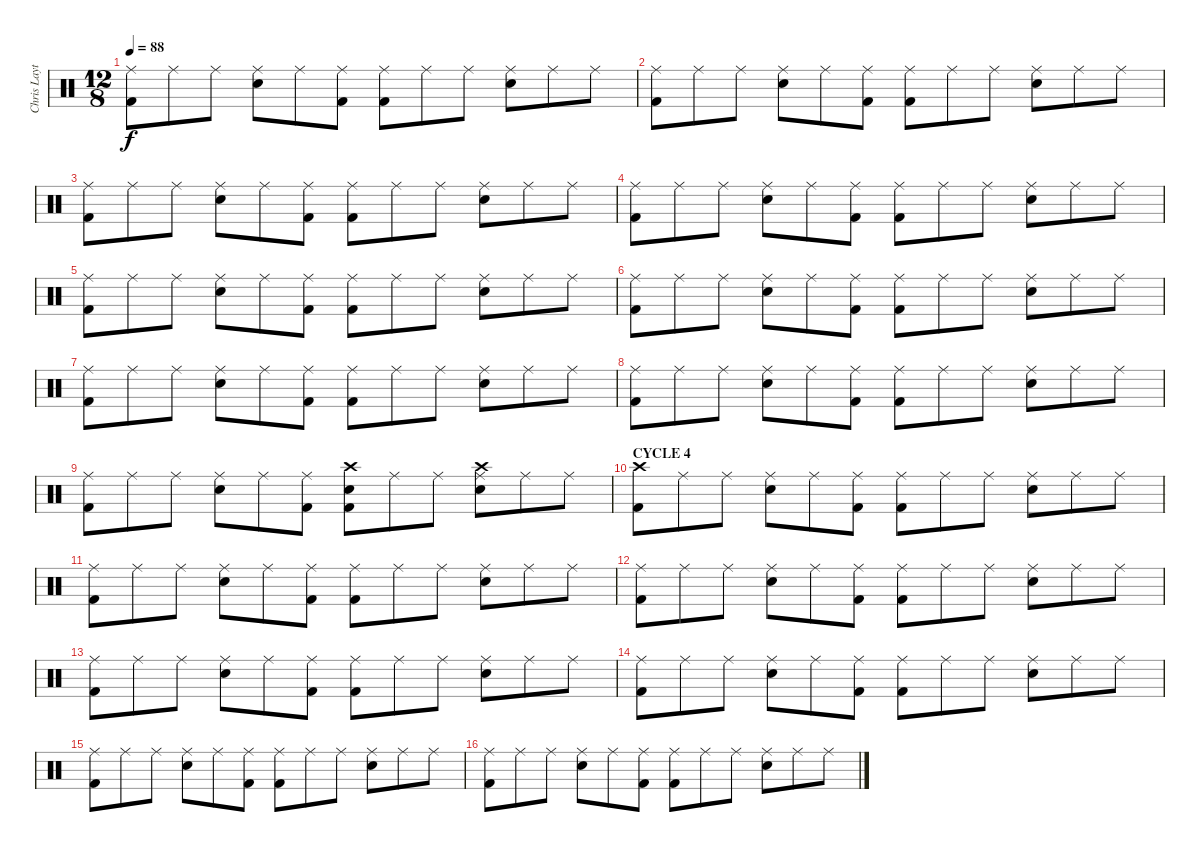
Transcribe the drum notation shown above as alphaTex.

\track ("Chris Layton" "Chris Layt") {instrument percussion}
\staff {score}
\articulation defaults
\ts (12 8)
\tempo 88
\clef neutral
\ks c
("Ride (middle)" "Kick (hit) 2").8{dy f} "Ride (middle)".8 "Ride (middle)".8 ("Ride (middle)" "Snare (hit) 2").8 "Ride (middle)".8 ("Ride (middle)" "Kick (hit) 2").8 ("Ride (middle)" "Kick (hit) 2").8 "Ride (middle)".8 "Ride (middle)".8 ("Ride (middle)" "Snare (hit) 2").8 "Ride (middle)".8 "Ride (middle)".8 |
("Ride (middle)" "Kick (hit) 2").8 "Ride (middle)".8 "Ride (middle)".8 ("Ride (middle)" "Snare (hit) 2").8 "Ride (middle)".8 ("Ride (middle)" "Kick (hit) 2").8 ("Ride (middle)" "Kick (hit) 2").8 "Ride (middle)".8 "Ride (middle)".8 ("Ride (middle)" "Snare (hit) 2").8 "Ride (middle)".8 "Ride (middle)".8 |
("Ride (middle)" "Kick (hit) 2").8 "Ride (middle)".8 "Ride (middle)".8 ("Ride (middle)" "Snare (hit) 2").8 "Ride (middle)".8 ("Ride (middle)" "Kick (hit) 2").8 ("Ride (middle)" "Kick (hit) 2").8 "Ride (middle)".8 "Ride (middle)".8 ("Ride (middle)" "Snare (hit) 2").8 "Ride (middle)".8 "Ride (middle)".8 |
("Ride (middle)" "Kick (hit) 2").8 "Ride (middle)".8 "Ride (middle)".8 ("Ride (middle)" "Snare (hit) 2").8 "Ride (middle)".8 ("Ride (middle)" "Kick (hit) 2").8 ("Ride (middle)" "Kick (hit) 2").8 "Ride (middle)".8 "Ride (middle)".8 ("Ride (middle)" "Snare (hit) 2").8 "Ride (middle)".8 "Ride (middle)".8 |
("Ride (middle)" "Kick (hit) 2").8 "Ride (middle)".8 "Ride (middle)".8 ("Ride (middle)" "Snare (hit) 2").8 "Ride (middle)".8 ("Ride (middle)" "Kick (hit) 2").8 ("Ride (middle)" "Kick (hit) 2").8 "Ride (middle)".8 "Ride (middle)".8 ("Ride (middle)" "Snare (hit) 2").8 "Ride (middle)".8 "Ride (middle)".8 |
("Ride (middle)" "Kick (hit) 2").8 "Ride (middle)".8 "Ride (middle)".8 ("Ride (middle)" "Snare (hit) 2").8 "Ride (middle)".8 ("Ride (middle)" "Kick (hit) 2").8 ("Ride (middle)" "Kick (hit) 2").8 "Ride (middle)".8 "Ride (middle)".8 ("Ride (middle)" "Snare (hit) 2").8 "Ride (middle)".8 "Ride (middle)".8 |
("Ride (middle)" "Kick (hit) 2").8 "Ride (middle)".8 "Ride (middle)".8 ("Ride (middle)" "Snare (hit) 2").8 "Ride (middle)".8 ("Ride (middle)" "Kick (hit) 2").8 ("Ride (middle)" "Kick (hit) 2").8 "Ride (middle)".8 "Ride (middle)".8 ("Ride (middle)" "Snare (hit) 2").8 "Ride (middle)".8 "Ride (middle)".8 |
("Ride (middle)" "Kick (hit) 2").8 "Ride (middle)".8 "Ride (middle)".8 ("Ride (middle)" "Snare (hit) 2").8 "Ride (middle)".8 ("Ride (middle)" "Kick (hit) 2").8 ("Ride (middle)" "Kick (hit) 2").8 "Ride (middle)".8 "Ride (middle)".8 ("Ride (middle)" "Snare (hit) 2").8 "Ride (middle)".8 "Ride (middle)".8 |
("Ride (middle)" "Kick (hit) 2").8 "Ride (middle)".8 "Ride (middle)".8 ("Ride (middle)" "Snare (hit) 2").8 "Ride (middle)".8 ("Ride (middle)" "Kick (hit) 2").8 ("Crash high (hit)" "Snare (hit) 2" "Kick (hit) 2").8 "Ride (middle)".8 "Ride (middle)".8 ("Ride (middle)" "Crash high (hit)" "Snare (hit) 2").8 "Ride (middle)".8 "Ride (middle)".8 |
\section ("" "CYCLE 4")
("Crash high (hit)" "Kick (hit) 2").8 "Ride (middle)".8 "Ride (middle)".8 ("Ride (middle)" "Snare (hit) 2").8 "Ride (middle)".8 ("Ride (middle)" "Kick (hit) 2").8 ("Ride (middle)" "Kick (hit) 2").8 "Ride (middle)".8 "Ride (middle)".8 ("Ride (middle)" "Snare (hit) 2").8 "Ride (middle)".8 "Ride (middle)".8 |
("Ride (middle)" "Kick (hit) 2").8 "Ride (middle)".8 "Ride (middle)".8 ("Ride (middle)" "Snare (hit) 2").8 "Ride (middle)".8 ("Ride (middle)" "Kick (hit) 2").8 ("Ride (middle)" "Kick (hit) 2").8 "Ride (middle)".8 "Ride (middle)".8 ("Ride (middle)" "Snare (hit) 2").8 "Ride (middle)".8 "Ride (middle)".8 |
("Ride (middle)" "Kick (hit) 2").8 "Ride (middle)".8 "Ride (middle)".8 ("Ride (middle)" "Snare (hit) 2").8 "Ride (middle)".8 ("Ride (middle)" "Kick (hit) 2").8 ("Ride (middle)" "Kick (hit) 2").8 "Ride (middle)".8 "Ride (middle)".8 ("Ride (middle)" "Snare (hit) 2").8 "Ride (middle)".8 "Ride (middle)".8 |
("Ride (middle)" "Kick (hit) 2").8 "Ride (middle)".8 "Ride (middle)".8 ("Ride (middle)" "Snare (hit) 2").8 "Ride (middle)".8 ("Ride (middle)" "Kick (hit) 2").8 ("Ride (middle)" "Kick (hit) 2").8 "Ride (middle)".8 "Ride (middle)".8 ("Ride (middle)" "Snare (hit) 2").8 "Ride (middle)".8 "Ride (middle)".8 |
("Ride (middle)" "Kick (hit) 2").8 "Ride (middle)".8 "Ride (middle)".8 ("Ride (middle)" "Snare (hit) 2").8 "Ride (middle)".8 ("Ride (middle)" "Kick (hit) 2").8 ("Ride (middle)" "Kick (hit) 2").8 "Ride (middle)".8 "Ride (middle)".8 ("Ride (middle)" "Snare (hit) 2").8 "Ride (middle)".8 "Ride (middle)".8 |
("Ride (middle)" "Kick (hit) 2").8 "Ride (middle)".8 "Ride (middle)".8 ("Ride (middle)" "Snare (hit) 2").8 "Ride (middle)".8 ("Ride (middle)" "Kick (hit) 2").8 ("Ride (middle)" "Kick (hit) 2").8 "Ride (middle)".8 "Ride (middle)".8 ("Ride (middle)" "Snare (hit) 2").8 "Ride (middle)".8 "Ride (middle)".8 |
("Ride (middle)" "Kick (hit) 2").8 "Ride (middle)".8 "Ride (middle)".8 ("Ride (middle)" "Snare (hit) 2").8 "Ride (middle)".8 ("Ride (middle)" "Kick (hit) 2").8 ("Ride (middle)" "Kick (hit) 2").8 "Ride (middle)".8 "Ride (middle)".8 ("Ride (middle)" "Snare (hit) 2").8 "Ride (middle)".8 "Ride (middle)".8
